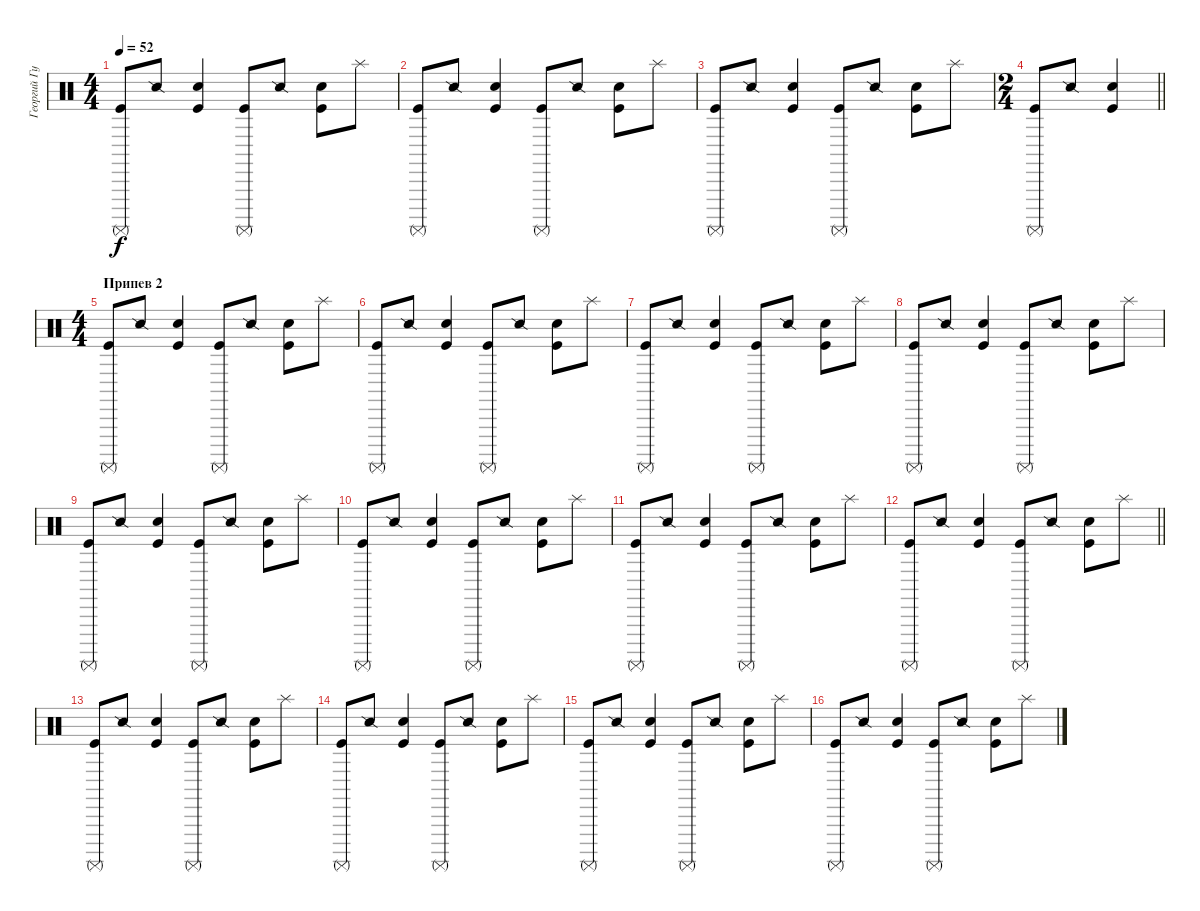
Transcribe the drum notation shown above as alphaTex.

\track ("Георгий Гурьянов" "Георгий Гу") {instrument percussion}
\staff {score}
\articulation defaults
\ts (4 4)
\tempo 52
\clef neutral
\ks c
("Kick (hit)" "Surdo (mute)").8{dy f} "Snare (side stick) 2".8 ("Snare (hit) 2" "Kick (hit)").4 ("Kick (hit)" "Surdo (mute)").8 "Snare (side stick) 2".8 ("Snare (hit) 2" "Kick (hit)").8 "Splash (hit)".8 |
("Kick (hit)" "Surdo (mute)").8 "Snare (side stick) 2".8 ("Snare (hit) 2" "Kick (hit)").4 ("Kick (hit)" "Surdo (mute)").8 "Snare (side stick) 2".8 ("Snare (hit) 2" "Kick (hit)").8 "Splash (hit)".8 |
("Kick (hit)" "Surdo (mute)").8 "Snare (side stick) 2".8 ("Snare (hit) 2" "Kick (hit)").4 ("Kick (hit)" "Surdo (mute)").8 "Snare (side stick) 2".8 ("Snare (hit) 2" "Kick (hit)").8 "Splash (hit)".8 |
\ts (2 4)
\barLineRight lightlight
("Kick (hit)" "Surdo (mute)").8 "Snare (side stick) 2".8 ("Snare (hit) 2" "Kick (hit)").4 |
\ts (4 4)
\section ("" "Припев 2")
("Kick (hit)" "Surdo (mute)").8 "Snare (side stick) 2".8 ("Snare (hit) 2" "Kick (hit)").4 ("Kick (hit)" "Surdo (mute)").8 "Snare (side stick) 2".8 ("Snare (hit) 2" "Kick (hit)").8 "Splash (hit)".8 |
("Kick (hit)" "Surdo (mute)").8 "Snare (side stick) 2".8 ("Snare (hit) 2" "Kick (hit)").4 ("Kick (hit)" "Surdo (mute)").8 "Snare (side stick) 2".8 ("Snare (hit) 2" "Kick (hit)").8 "Splash (hit)".8 |
("Kick (hit)" "Surdo (mute)").8 "Snare (side stick) 2".8 ("Snare (hit) 2" "Kick (hit)").4 ("Kick (hit)" "Surdo (mute)").8 "Snare (side stick) 2".8 ("Snare (hit) 2" "Kick (hit)").8 "Splash (hit)".8 |
("Kick (hit)" "Surdo (mute)").8 "Snare (side stick) 2".8 ("Snare (hit) 2" "Kick (hit)").4 ("Kick (hit)" "Surdo (mute)").8 "Snare (side stick) 2".8 ("Snare (hit) 2" "Kick (hit)").8 "Splash (hit)".8 |
("Kick (hit)" "Surdo (mute)").8 "Snare (side stick) 2".8 ("Snare (hit) 2" "Kick (hit)").4 ("Kick (hit)" "Surdo (mute)").8 "Snare (side stick) 2".8 ("Snare (hit) 2" "Kick (hit)").8 "Splash (hit)".8 |
("Kick (hit)" "Surdo (mute)").8 "Snare (side stick) 2".8 ("Snare (hit) 2" "Kick (hit)").4 ("Kick (hit)" "Surdo (mute)").8 "Snare (side stick) 2".8 ("Snare (hit) 2" "Kick (hit)").8 "Splash (hit)".8 |
("Kick (hit)" "Surdo (mute)").8 "Snare (side stick) 2".8 ("Snare (hit) 2" "Kick (hit)").4 ("Kick (hit)" "Surdo (mute)").8 "Snare (side stick) 2".8 ("Snare (hit) 2" "Kick (hit)").8 "Splash (hit)".8 |
\barLineRight lightlight
("Kick (hit)" "Surdo (mute)").8 "Snare (side stick) 2".8 ("Snare (hit) 2" "Kick (hit)").4 ("Kick (hit)" "Surdo (mute)").8 "Snare (side stick) 2".8 ("Snare (hit) 2" "Kick (hit)").8 "Splash (hit)".8 |
\section ("" "")
("Kick (hit)" "Surdo (mute)").8 "Snare (side stick) 2".8 ("Snare (hit) 2" "Kick (hit)").4 ("Kick (hit)" "Surdo (mute)").8 "Snare (side stick) 2".8 ("Snare (hit) 2" "Kick (hit)").8 "Splash (hit)".8 |
("Kick (hit)" "Surdo (mute)").8 "Snare (side stick) 2".8 ("Snare (hit) 2" "Kick (hit)").4 ("Kick (hit)" "Surdo (mute)").8 "Snare (side stick) 2".8 ("Snare (hit) 2" "Kick (hit)").8 "Splash (hit)".8 |
("Kick (hit)" "Surdo (mute)").8 "Snare (side stick) 2".8 ("Snare (hit) 2" "Kick (hit)").4 ("Kick (hit)" "Surdo (mute)").8 "Snare (side stick) 2".8 ("Snare (hit) 2" "Kick (hit)").8 "Splash (hit)".8 |
("Kick (hit)" "Surdo (mute)").8 "Snare (side stick) 2".8 ("Snare (hit) 2" "Kick (hit)").4 ("Kick (hit)" "Surdo (mute)").8 "Snare (side stick) 2".8 ("Snare (hit) 2" "Kick (hit)").8 "Splash (hit)".8
